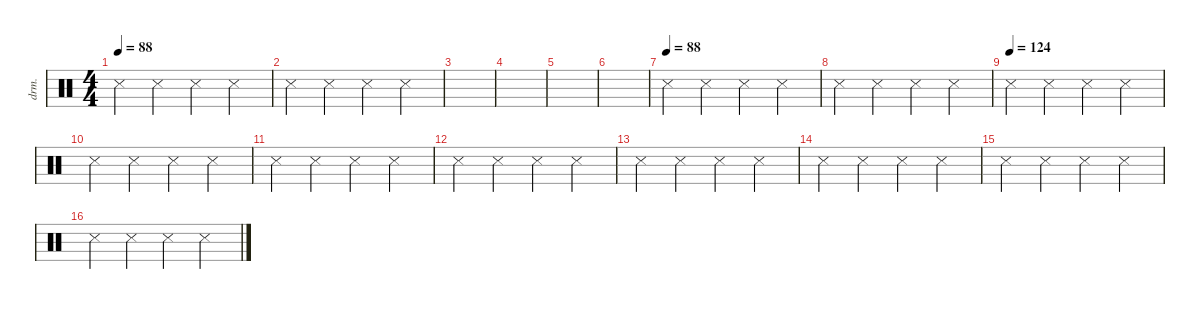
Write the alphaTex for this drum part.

\defaultSystemsLayout 4
\hideDynamics
\bracketExtendMode nobrackets
\otherSystemsTrackNameOrientation horizontal
\track ("Drumkit" "drm.") {instrument percussion}
\staff {score}
\articulation defaults
\ts (4 4)
\tempo 88
\clef neutral
\ks c "Metronome (hit)".4{dy mf} "Metronome (hit)".4 "Metronome (hit)".4 "Metronome (hit)".4
|
"Metronome (hit)".4 "Metronome (hit)".4 "Metronome (hit)".4 "Metronome (hit)".4 |
|
|
|
|
\tempo (88)
"Metronome (hit)".4 "Metronome (hit)".4 "Metronome (hit)".4 "Metronome (hit)".4 |
"Metronome (hit)".4 "Metronome (hit)".4 "Metronome (hit)".4 "Metronome (hit)".4 |
\tempo (124)
"Metronome (hit)".4 "Metronome (hit)".4 "Metronome (hit)".4 "Metronome (hit)".4 |
"Metronome (hit)".4 "Metronome (hit)".4 "Metronome (hit)".4 "Metronome (hit)".4 |
"Metronome (hit)".4 "Metronome (hit)".4 "Metronome (hit)".4 "Metronome (hit)".4 |
"Metronome (hit)".4 "Metronome (hit)".4 "Metronome (hit)".4 "Metronome (hit)".4 |
"Metronome (hit)".4 "Metronome (hit)".4 "Metronome (hit)".4 "Metronome (hit)".4 |
"Metronome (hit)".4 "Metronome (hit)".4 "Metronome (hit)".4 "Metronome (hit)".4 |
"Metronome (hit)".4 "Metronome (hit)".4 "Metronome (hit)".4 "Metronome (hit)".4 |
"Metronome (hit)".4 "Metronome (hit)".4 "Metronome (hit)".4 "Metronome (hit)".4
